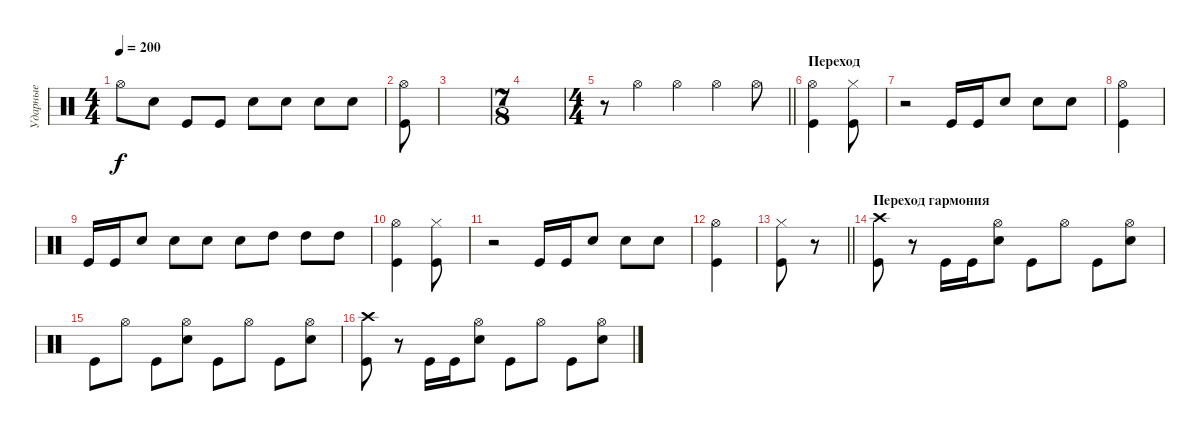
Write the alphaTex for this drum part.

\track ("Ударные" "Ударные") {instrument percussion}
\staff {score}
\articulation defaults
\ts (4 4)
\tempo 200
\clef neutral
\ks c "Hi-Hat (open)".8{dy f} "Snare (hit) 2".8 "Kick (hit)".8 "Kick (hit)".8 "Snare (hit) 2".8 "Snare (hit) 2".8 "Snare (hit) 2".8 "Snare (hit) 2".8
|
("Hi-Hat (open)" "Kick (hit)").8 |
|
\ts (7 8)
|
\ts (4 4)
\barLineRight lightlight
r.8 "Hi-Hat (open)".4 "Hi-Hat (open)".4 "Hi-Hat (open)".4 "Hi-Hat (open)".8 |
\section ("" "Переход")
("Hi-Hat (open)" "Kick (hit)").4 ("Hi-Hat (closed)" "Kick (hit)").8 |
r.2 "Kick (hit)".16 "Kick (hit)".16 "Snare (hit) 2".8 "Snare (hit) 2".8 "Snare (hit) 2".8 |
("Hi-Hat (open)" "Kick (hit)").4 |
"Kick (hit)".16 "Kick (hit)".16 "Snare (hit) 2".8 "Snare (hit) 2".8 "Snare (hit) 2".8 "Snare (hit) 2".8 "High Tom (hit)".8 "High Tom (hit)".8 "High Tom (hit)".8 |
("Hi-Hat (open)" "Kick (hit)").4 ("Hi-Hat (closed)" "Kick (hit)").8 |
r.2 "Kick (hit)".16 "Kick (hit)".16 "Snare (hit) 2".8 "Snare (hit) 2".8 "Snare (hit) 2".8 |
("Hi-Hat (open)" "Kick (hit)").4 |
\barLineRight lightlight
("Hi-Hat (closed)" "Kick (hit)").8 r.8 |
\section ("" "Переход гармония")
("Crash high (hit)" "Kick (hit)").8 r.8 "Kick (hit)".16 "Kick (hit)".16 ("Hi-Hat (open)" "Snare (hit) 2").8 "Kick (hit)".8 "Hi-Hat (open)".8 "Kick (hit)".8 ("Hi-Hat (open)" "Snare (hit) 2").8 |
"Kick (hit)".8 "Hi-Hat (open)".8 "Kick (hit)".8 ("Hi-Hat (open)" "Snare (hit) 2").8 "Kick (hit)".8 "Hi-Hat (open)".8 "Kick (hit)".8 ("Hi-Hat (open)" "Snare (hit) 2").8 |
("Crash high (hit)" "Kick (hit)").8 r.8 "Kick (hit)".16 "Kick (hit)".16 ("Hi-Hat (open)" "Snare (hit) 2").8 "Kick (hit)".8 "Hi-Hat (open)".8 "Kick (hit)".8 ("Hi-Hat (open)" "Snare (hit) 2").8
